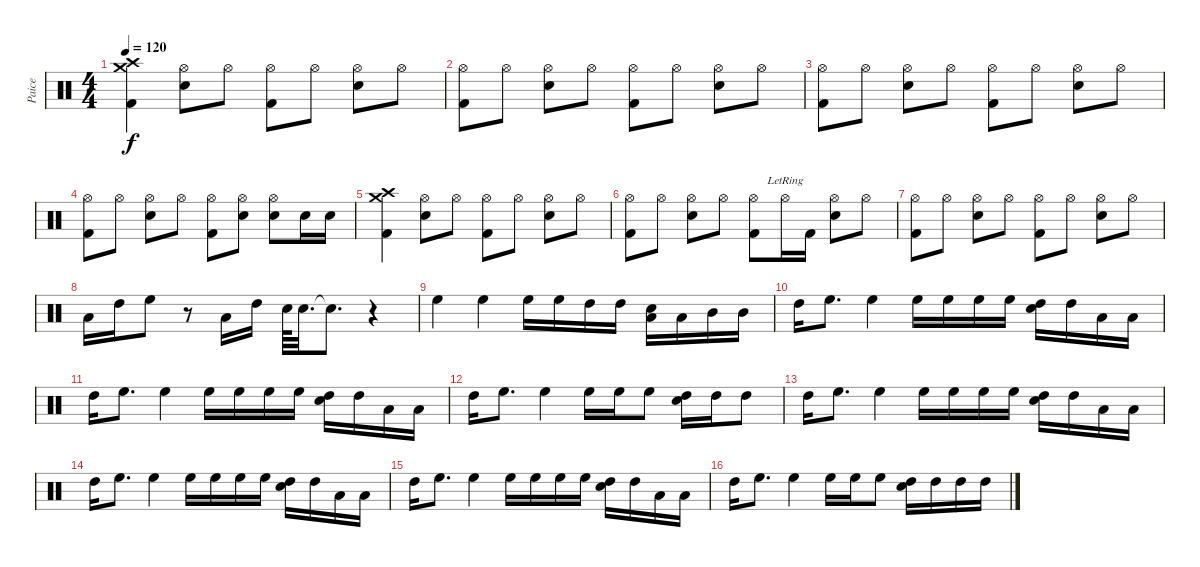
\track ("Paice" "Paice") {instrument percussion}
\staff {score}
\articulation defaults
\ts (4 4)
\tempo 120
\clef neutral
\ks c
("Crash high (hit)" "Crash medium (hit)" "Kick (hit) 2").4{dy f} ("Hi-Hat (open)" "Electric Snare (hit)").8 "Hi-Hat (open)".8 ("Hi-Hat (open)" "Kick (hit) 2").8 "Hi-Hat (open)".8 ("Hi-Hat (open)" "Electric Snare (hit)").8 "Hi-Hat (open)".8 |
("Hi-Hat (open)" "Kick (hit) 2").8 "Hi-Hat (open)".8 ("Hi-Hat (open)" "Electric Snare (hit)").8 "Hi-Hat (open)".8 ("Hi-Hat (open)" "Kick (hit) 2").8 "Hi-Hat (open)".8 ("Hi-Hat (open)" "Electric Snare (hit)").8 "Hi-Hat (open)".8 |
("Hi-Hat (open)" "Kick (hit) 2").8 "Hi-Hat (open)".8 ("Hi-Hat (open)" "Electric Snare (hit)").8 "Hi-Hat (open)".8 ("Hi-Hat (open)" "Kick (hit) 2").8 "Hi-Hat (open)".8 ("Hi-Hat (open)" "Electric Snare (hit)").8 "Hi-Hat (open)".8 |
("Hi-Hat (open)" "Kick (hit) 2").8 "Hi-Hat (open)".8 ("Hi-Hat (open)" "Electric Snare (hit)").8 "Hi-Hat (open)".8 ("Hi-Hat (open)" "Kick (hit) 2").8 ("Hi-Hat (open)" "Electric Snare (hit)").8 ("Hi-Hat (open)" "Electric Snare (hit)").8 "Electric Snare (hit)".16 "Electric Snare (hit)".16 |
("Crash high (hit)" "Crash medium (hit)" "Kick (hit) 2").4 ("Hi-Hat (open)" "Electric Snare (hit)").8 "Hi-Hat (open)".8 ("Hi-Hat (open)" "Kick (hit) 2").8 "Hi-Hat (open)".8 ("Hi-Hat (open)" "Electric Snare (hit)").8 "Hi-Hat (open)".8 |
("Hi-Hat (open)" "Kick (hit) 2").8 "Hi-Hat (open)".8 ("Hi-Hat (open)" "Electric Snare (hit)").8 "Hi-Hat (open)".8 ("Hi-Hat (open)" "Kick (hit) 2").8 "Hi-Hat (open)"{lr}.16 "Kick (hit) 2".16 ("Hi-Hat (open)" "Electric Snare (hit)").8 "Hi-Hat (open)".8 |
("Hi-Hat (open)" "Kick (hit) 2").8 "Hi-Hat (open)".8 ("Hi-Hat (open)" "Electric Snare (hit)").8 "Hi-Hat (open)".8 ("Hi-Hat (open)" "Kick (hit) 2").8 "Hi-Hat (open)".8 ("Hi-Hat (open)" "Electric Snare (hit)").8 "Hi-Hat (open)".8 |
"Low Tom (hit)".16 "High Tom (hit)".16 "High Floor Tom (hit)".8 r.8 "Low Tom (hit)".16 "High Tom (hit)".16 "Electric Snare (hit)".64 "Electric Snare (hit)".32{d} "Snare (hit)"{t}.8{d} r.4 |
"High Floor Tom (hit)".4 "High Floor Tom (hit)".4 "High Floor Tom (hit)".16 "High Floor Tom (hit)".16 "High Tom (hit)".16 "High Tom (hit)".16 ("Low Tom (hit)" "Hand Clap (hit)").16 "Low Tom (hit)".16 "Mid Tom (hit)".16 "Mid Tom (hit)".16 |
"High Tom (hit)".16 "High Floor Tom (hit)".8{d} "High Floor Tom (hit)".4 "High Floor Tom (hit)".16 "High Floor Tom (hit)".16 "High Floor Tom (hit)".16 "High Floor Tom (hit)".16 ("High Tom (hit)" "Hand Clap (hit)").16 "High Tom (hit)".16 "Low Tom (hit)".16 "Low Tom (hit)".16 |
"High Tom (hit)".16 "High Floor Tom (hit)".8{d} "High Floor Tom (hit)".4 "High Floor Tom (hit)".16 "High Floor Tom (hit)".16 "High Floor Tom (hit)".16 "High Floor Tom (hit)".16 ("High Tom (hit)" "Hand Clap (hit)").16 "High Tom (hit)".16 "Low Tom (hit)".16 "Low Tom (hit)".16 |
"High Tom (hit)".16 "High Floor Tom (hit)".8{d} "High Floor Tom (hit)".4 "High Floor Tom (hit)".16 "High Floor Tom (hit)".16 "High Floor Tom (hit)".8 ("High Tom (hit)" "Hand Clap (hit)").16 "High Tom (hit)".16 "High Tom (hit)".8 |
"High Tom (hit)".16 "High Floor Tom (hit)".8{d} "High Floor Tom (hit)".4 "High Floor Tom (hit)".16 "High Floor Tom (hit)".16 "High Floor Tom (hit)".16 "High Floor Tom (hit)".16 ("High Tom (hit)" "Hand Clap (hit)").16 "High Tom (hit)".16 "Low Tom (hit)".16 "Low Tom (hit)".16 |
"High Tom (hit)".16 "High Floor Tom (hit)".8{d} "High Floor Tom (hit)".4 "High Floor Tom (hit)".16 "High Floor Tom (hit)".16 "High Floor Tom (hit)".16 "High Floor Tom (hit)".16 ("High Tom (hit)" "Hand Clap (hit)").16 "High Tom (hit)".16 "Low Tom (hit)".16 "Low Tom (hit)".16 |
"High Tom (hit)".16 "High Floor Tom (hit)".8{d} "High Floor Tom (hit)".4 "High Floor Tom (hit)".16 "High Floor Tom (hit)".16 "High Floor Tom (hit)".16 "High Floor Tom (hit)".16 ("High Tom (hit)" "Hand Clap (hit)").16 "High Tom (hit)".16 "Low Tom (hit)".16 "Low Tom (hit)".16 |
"High Tom (hit)".16 "High Floor Tom (hit)".8{d} "High Floor Tom (hit)".4 "High Floor Tom (hit)".16 "High Floor Tom (hit)".16 "High Floor Tom (hit)".8 ("High Tom (hit)" "Hand Clap (hit)").16 "High Tom (hit)".16 "High Tom (hit)".16 "High Tom (hit)".16
